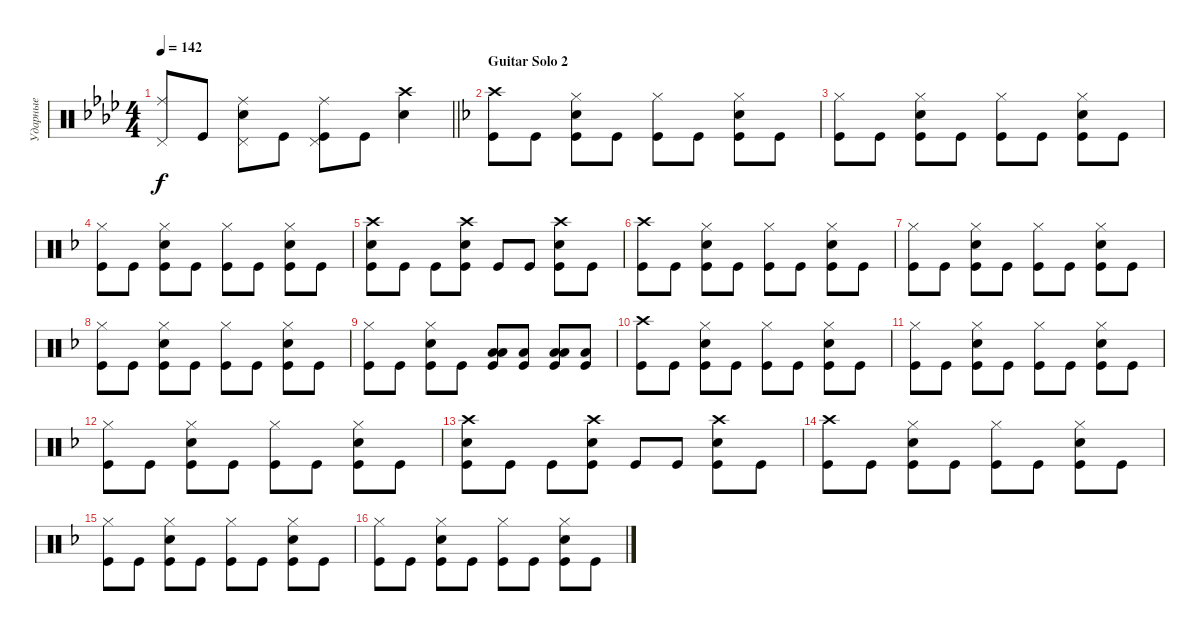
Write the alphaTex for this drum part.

\track ("Ударные" "Ударные") {instrument percussion}
\staff {score}
\articulation defaults
\ts (4 4)
\tempo 142
\clef neutral
\barLineRight lightlight
\ks fminor
("Ride (middle)" "Pedal Hi-Hat (hit)").8{dy f} "Kick (hit)".8 ("Snare (hit) 2" "Pedal Hi-Hat (hit)" "Ride (middle)").8 "Kick (hit)".8 ("Kick (hit)" "Ride (middle)" "Pedal Hi-Hat (hit)").8 "Kick (hit)".8 ("Snare (hit) 2" "Crash high (hit)").4 |
\section ("" "Guitar Solo 2")
\ks dminor
("Kick (hit)" "Crash high (hit)").8 "Kick (hit)".8 ("Kick (hit)" "Snare (hit) 2" "Hi-Hat (closed)").8 "Kick (hit)".8 ("Kick (hit)" "Hi-Hat (closed)").8 "Kick (hit)".8 ("Kick (hit)" "Snare (hit) 2" "Hi-Hat (closed)").8 "Kick (hit)".8 |
("Kick (hit)" "Hi-Hat (closed)").8 "Kick (hit)".8 ("Kick (hit)" "Snare (hit) 2" "Hi-Hat (closed)").8 "Kick (hit)".8 ("Kick (hit)" "Hi-Hat (closed)").8 "Kick (hit)".8 ("Kick (hit)" "Snare (hit) 2" "Hi-Hat (closed)").8 "Kick (hit)".8 |
("Kick (hit)" "Hi-Hat (closed)").8 "Kick (hit)".8 ("Kick (hit)" "Snare (hit) 2" "Hi-Hat (closed)").8 "Kick (hit)".8 ("Kick (hit)" "Hi-Hat (closed)").8 "Kick (hit)".8 ("Kick (hit)" "Snare (hit) 2" "Hi-Hat (closed)").8 "Kick (hit)".8 |
("Kick (hit)" "Snare (hit) 2" "Crash high (hit)").8 "Kick (hit)".8 "Kick (hit)".8 ("Kick (hit)" "Snare (hit) 2" "Crash high (hit)").8 "Kick (hit)".8 "Kick (hit)".8 ("Kick (hit)" "Snare (hit) 2" "Crash high (hit)").8 "Kick (hit)".8 |
("Kick (hit)" "Crash high (hit)").8 "Kick (hit)".8 ("Kick (hit)" "Snare (hit) 2" "Hi-Hat (closed)").8 "Kick (hit)".8 ("Kick (hit)" "Hi-Hat (closed)").8 "Kick (hit)".8 ("Kick (hit)" "Snare (hit) 2" "Hi-Hat (closed)").8 "Kick (hit)".8 |
("Kick (hit)" "Hi-Hat (closed)").8 "Kick (hit)".8 ("Kick (hit)" "Snare (hit) 2" "Hi-Hat (closed)").8 "Kick (hit)".8 ("Kick (hit)" "Hi-Hat (closed)").8 "Kick (hit)".8 ("Kick (hit)" "Snare (hit) 2" "Hi-Hat (closed)").8 "Kick (hit)".8 |
("Kick (hit)" "Hi-Hat (closed)").8 "Kick (hit)".8 ("Kick (hit)" "Snare (hit) 2" "Hi-Hat (closed)").8 "Kick (hit)".8 ("Kick (hit)" "Hi-Hat (closed)").8 "Kick (hit)".8 ("Kick (hit)" "Snare (hit) 2" "Hi-Hat (closed)").8 "Kick (hit)".8 |
("Kick (hit)" "Hi-Hat (closed)").8 "Kick (hit)".8 ("Kick (hit)" "Snare (hit) 2" "Hi-Hat (closed)").8 "Kick (hit)".8 ("Kick (hit)" "Low Tom (hit)" "Low Tom (hit)").8{bd 60} ("Kick (hit)" "Low Tom (hit)").8 ("Kick (hit)" "Low Tom (hit)" "Low Tom (hit)").8{bd 60} ("Kick (hit)" "Low Tom (hit)").8 |
("Kick (hit)" "Crash high (hit)").8 "Kick (hit)".8 ("Kick (hit)" "Snare (hit) 2" "Hi-Hat (closed)").8 "Kick (hit)".8 ("Kick (hit)" "Hi-Hat (closed)").8 "Kick (hit)".8 ("Kick (hit)" "Snare (hit) 2" "Hi-Hat (closed)").8 "Kick (hit)".8 |
("Kick (hit)" "Hi-Hat (closed)").8 "Kick (hit)".8 ("Kick (hit)" "Snare (hit) 2" "Hi-Hat (closed)").8 "Kick (hit)".8 ("Kick (hit)" "Hi-Hat (closed)").8 "Kick (hit)".8 ("Kick (hit)" "Snare (hit) 2" "Hi-Hat (closed)").8 "Kick (hit)".8 |
("Kick (hit)" "Hi-Hat (closed)").8 "Kick (hit)".8 ("Kick (hit)" "Snare (hit) 2" "Hi-Hat (closed)").8 "Kick (hit)".8 ("Kick (hit)" "Hi-Hat (closed)").8 "Kick (hit)".8 ("Kick (hit)" "Snare (hit) 2" "Hi-Hat (closed)").8 "Kick (hit)".8 |
("Kick (hit)" "Snare (hit) 2" "Crash high (hit)").8 "Kick (hit)".8 "Kick (hit)".8 ("Kick (hit)" "Snare (hit) 2" "Crash high (hit)").8 "Kick (hit)".8 "Kick (hit)".8 ("Kick (hit)" "Snare (hit) 2" "Crash high (hit)").8 "Kick (hit)".8 |
("Kick (hit)" "Crash high (hit)").8 "Kick (hit)".8 ("Kick (hit)" "Snare (hit) 2" "Hi-Hat (closed)").8 "Kick (hit)".8 ("Kick (hit)" "Hi-Hat (closed)").8 "Kick (hit)".8 ("Kick (hit)" "Snare (hit) 2" "Hi-Hat (closed)").8 "Kick (hit)".8 |
("Kick (hit)" "Hi-Hat (closed)").8 "Kick (hit)".8 ("Kick (hit)" "Snare (hit) 2" "Hi-Hat (closed)").8 "Kick (hit)".8 ("Kick (hit)" "Hi-Hat (closed)").8 "Kick (hit)".8 ("Kick (hit)" "Snare (hit) 2" "Hi-Hat (closed)").8 "Kick (hit)".8 |
("Kick (hit)" "Hi-Hat (closed)").8 "Kick (hit)".8 ("Kick (hit)" "Snare (hit) 2" "Hi-Hat (closed)").8 "Kick (hit)".8 ("Kick (hit)" "Hi-Hat (closed)").8 "Kick (hit)".8 ("Kick (hit)" "Snare (hit) 2" "Hi-Hat (closed)").8 "Kick (hit)".8
